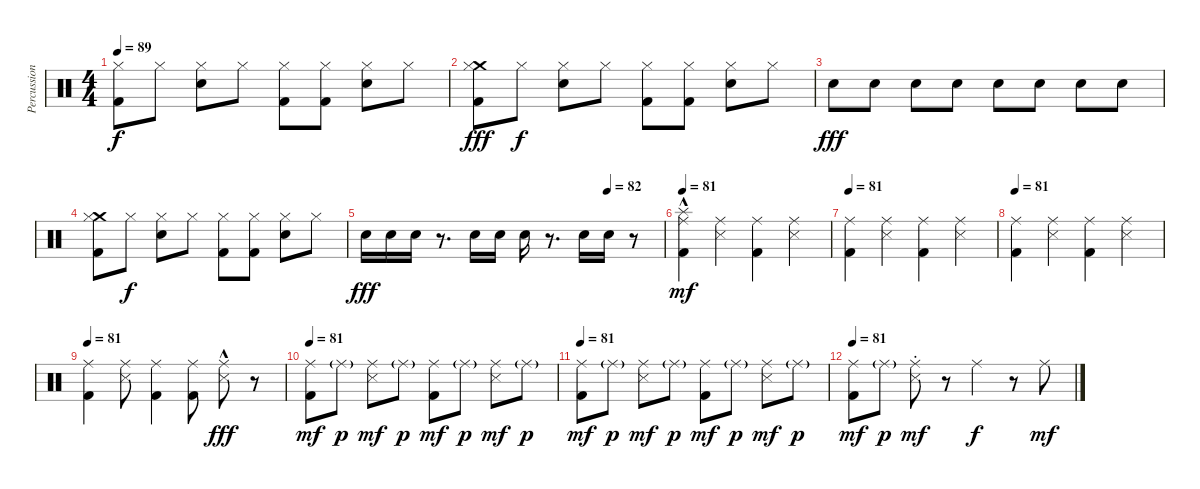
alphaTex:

\track ("Percussion" "Percussion") {instrument percussion}
\staff {score}
\articulation defaults
\ts (4 4)
\tempo 89
\clef neutral
\ks c
("Kick (hit) 2" "Hi-Hat (closed)").8{dy f} "Hi-Hat (closed)".8 ("Electric Snare (hit)" "Hi-Hat (closed)").8 "Hi-Hat (closed)".8 ("Kick (hit) 2" "Hi-Hat (closed)").8 ("Kick (hit) 2" "Hi-Hat (closed)").8 ("Electric Snare (hit)" "Hi-Hat (closed)").8 "Hi-Hat (closed)".8 |
("Crash medium (hit)" "Kick (hit) 2" "Hi-Hat (closed)").8{dy fff} "Hi-Hat (closed)".8{dy f} ("Electric Snare (hit)" "Hi-Hat (closed)").8 "Hi-Hat (closed)".8 ("Kick (hit) 2" "Hi-Hat (closed)").8 ("Kick (hit) 2" "Hi-Hat (closed)").8 ("Electric Snare (hit)" "Hi-Hat (closed)").8 "Hi-Hat (closed)".8 |
"Electric Snare (hit)".8{dy fff} "Electric Snare (hit)".8 "Electric Snare (hit)".8 "Electric Snare (hit)".8 "Electric Snare (hit)".8 "Electric Snare (hit)".8 "Electric Snare (hit)".8 "Electric Snare (hit)".8 |
("Crash medium (hit)" "Kick (hit) 2" "Hi-Hat (closed)").8 "Hi-Hat (closed)".8{dy f} ("Electric Snare (hit)" "Hi-Hat (closed)").8 "Hi-Hat (closed)".8 ("Kick (hit) 2" "Hi-Hat (closed)").8 ("Kick (hit) 2" "Hi-Hat (closed)").8 ("Electric Snare (hit)" "Hi-Hat (closed)").8 "Hi-Hat (closed)".8 |
\tempo (82 0.8125)
"Electric Snare (hit)".16{dy fff} "Electric Snare (hit)".16 "Electric Snare (hit)".16 r.8{d} "Electric Snare (hit)".16 "Electric Snare (hit)".16 "Electric Snare (hit)".16 r.8{d} "Electric Snare (hit)".16 "Electric Snare (hit)".16 r.8 |
\tempo 81
("Ride (middle)" "Kick (hit) 2" "Splash (hit)"{hac}).4{dy mf} ("Ride (middle)" "Snare (side stick) 3").4 ("Ride (middle)" "Kick (hit) 2").4 ("Ride (middle)" "Snare (side stick) 3").4 |
\tempo 81
("Ride (middle)" "Kick (hit) 2").4 ("Ride (middle)" "Snare (side stick) 3").4 ("Ride (middle)" "Kick (hit) 2").4 ("Ride (middle)" "Snare (side stick) 3").4 |
\tempo 81
("Ride (middle)" "Kick (hit) 2").4 ("Ride (middle)" "Snare (side stick) 3").4 ("Ride (middle)" "Kick (hit) 2").4 ("Ride (middle)" "Snare (side stick) 3").4 |
\tempo 81
("Ride (middle)" "Kick (hit) 2").4 ("Ride (middle)" "Snare (side stick) 3").8 ("Ride (middle)" "Kick (hit) 2").4 ("Ride (middle)" "Kick (hit) 2").8 ("Ride (middle)" "Snare (side stick) 3"{hac}).8{dy fff} r.8 |
\tempo 81
("Ride (middle)" "Kick (hit) 2").8{dy mf} "Ride (middle)"{g}.8{dy p} ("Ride (middle)" "Snare (side stick) 3").8{dy mf} "Ride (middle)"{g}.8{dy p} ("Ride (middle)" "Kick (hit) 2").8{dy mf} "Ride (middle)"{g}.8{dy p} ("Ride (middle)" "Snare (side stick) 3").8{dy mf} "Ride (middle)"{g}.8{dy p} |
\tempo 81
("Ride (middle)" "Kick (hit) 2").8{dy mf} "Ride (middle)"{g}.8{dy p} ("Ride (middle)" "Snare (side stick) 3").8{dy mf} "Ride (middle)"{g}.8{dy p} ("Ride (middle)" "Kick (hit) 2").8{dy mf} "Ride (middle)"{g}.8{dy p} ("Ride (middle)" "Snare (side stick) 3").8{dy mf} "Ride (middle)"{g}.8{dy p} |
\tempo 81
("Ride (middle)" "Kick (hit) 2").8{dy mf} "Ride (middle)"{g}.8{dy p} ("Ride (middle)"{st} "Snare (side stick) 3").8{dy mf} r.8 "Ride (middle)".4{dy f} r.8 "Ride (middle)".8{dy mf}
